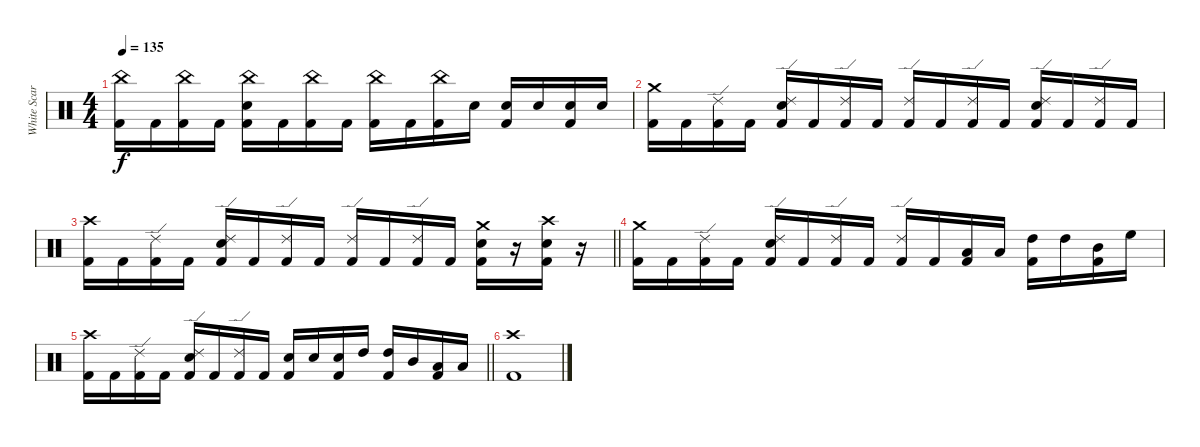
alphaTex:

\track ("White Scar" "White Scar") {instrument percussion}
\staff {score}
\articulation defaults
\ts (4 4)
\tempo 135
\clef neutral
\ks c
("Kick (hit) 2" "China (hit)").16{dy f} "Kick (hit) 2".16 ("Kick (hit) 2" "China (hit)").16 "Kick (hit) 2".16 ("Kick (hit) 2" "Snare (hit) 2" "China (hit)").16 "Kick (hit) 2".16 ("Kick (hit) 2" "China (hit)").16 "Kick (hit) 2".16 ("Kick (hit) 2" "China (hit)").16 "Kick (hit) 2".16 ("Kick (hit) 2" "China (hit)").16 "Snare (hit) 2".16 ("Kick (hit) 2" "Snare (hit) 2").16 "Snare (hit) 2".16 ("Kick (hit) 2" "Snare (hit) 2").16 "Snare (hit) 2".16 |
("Kick (hit) 2" "Crash medium (hit)").16 "Kick (hit) 2".16 ("Kick (hit) 2" "Ride (edge) 2").16 "Kick (hit) 2".16 ("Kick (hit) 2" "Snare (hit) 2" "Ride (edge) 2").16 "Kick (hit) 2".16 ("Kick (hit) 2" "Ride (edge) 2").16 "Kick (hit) 2".16 ("Kick (hit) 2" "Ride (edge) 2").16 "Kick (hit) 2".16 ("Kick (hit) 2" "Ride (edge) 2").16 "Kick (hit) 2".16 ("Kick (hit) 2" "Snare (hit) 2" "Ride (edge) 2").16 "Kick (hit) 2".16 ("Kick (hit) 2" "Ride (edge) 2").16 "Kick (hit) 2".16 |
\barLineRight lightlight
("Kick (hit) 2" "Crash high (hit)").16 "Kick (hit) 2".16 ("Kick (hit) 2" "Ride (edge) 2").16 "Kick (hit) 2".16 ("Kick (hit) 2" "Snare (hit) 2" "Ride (edge) 2").16 "Kick (hit) 2".16 ("Kick (hit) 2" "Ride (edge) 2").16 "Kick (hit) 2".16 ("Kick (hit) 2" "Ride (edge) 2").16 "Kick (hit) 2".16 ("Kick (hit) 2" "Ride (edge) 2").16 "Kick (hit) 2".16 ("Kick (hit) 2" "Snare (hit) 2" "Crash medium (hit)").16 r.16 ("Kick (hit) 2" "Snare (hit) 2" "Crash high (hit)").16 r.16 |
("Kick (hit) 2" "Crash medium (hit)").16 "Kick (hit) 2".16 ("Kick (hit) 2" "Ride (edge) 2").16 "Kick (hit) 2".16 ("Kick (hit) 2" "Snare (hit) 2" "Ride (edge) 2").16 "Kick (hit) 2".16 ("Kick (hit) 2" "Ride (edge) 2").16 "Kick (hit) 2".16 ("Kick (hit) 2" "Ride (edge) 2").16 "Kick (hit) 2".16 ("Kick (hit) 2" "Low Tom (hit)").16 "Low Tom (hit)".16 ("Kick (hit) 2" "High Tom (hit)").16 "High Tom (hit)".16 ("Kick (hit) 2" "Mid Tom (hit)").16 "High Floor Tom (hit)".16 |
\barLineRight lightlight
("Kick (hit) 2" "Crash high (hit)").16 "Kick (hit) 2".16 ("Kick (hit) 2" "Ride (edge) 2").16 "Kick (hit) 2".16 ("Kick (hit) 2" "Snare (hit) 2" "Ride (edge) 2").16 "Kick (hit) 2".16 ("Kick (hit) 2" "Ride (edge) 2").16 "Kick (hit) 2".16 ("Kick (hit) 2" "Snare (hit) 2").16 "Snare (hit) 2".16 ("Kick (hit) 2" "Snare (hit) 2").16 "High Tom (hit)".16 ("Kick (hit) 2" "High Tom (hit)").16 "Mid Tom (hit)".16 ("Kick (hit) 2" "Low Tom (hit)").16 "Low Tom (hit)".16 |
("Crash high (hit)" "Kick (hit) 2").1
